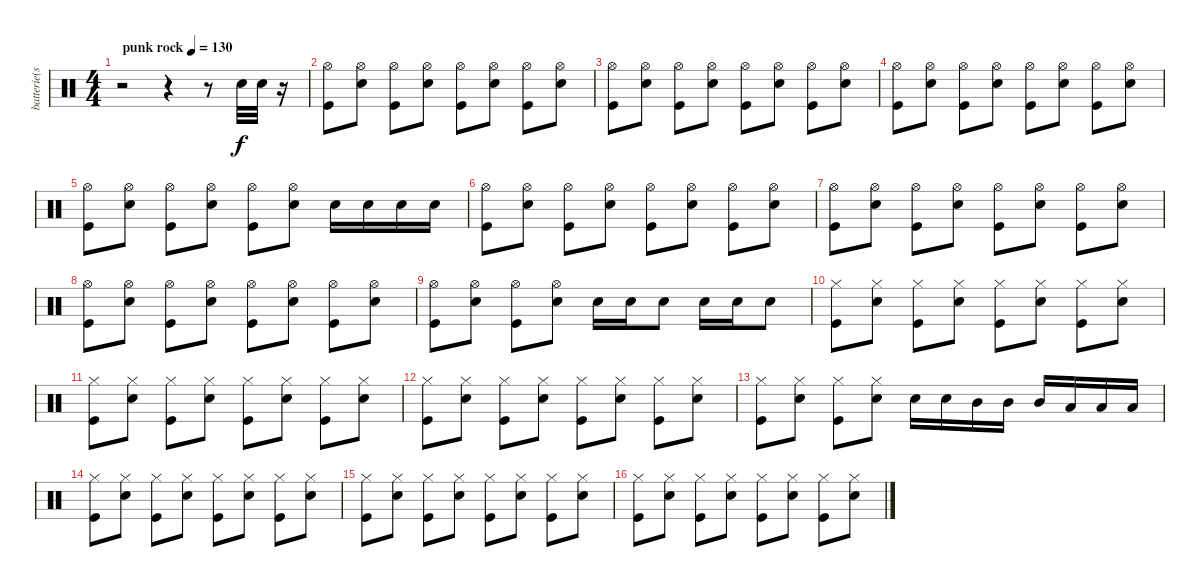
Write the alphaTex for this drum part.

\track ("batterie(steve)" "batterie(s") {instrument percussion}
\staff {score}
\articulation defaults
\ts (4 4)
\tempo (130 "punk rock")
\clef neutral
\ks c
r.2{dy f} r.4 r.8 "Snare (hit) 2".32 "Snare (hit) 2".32 r.16 |
("Hi-Hat (open)" "Kick (hit)").8 ("Hi-Hat (open)" "Snare (hit) 2").8 ("Hi-Hat (open)" "Kick (hit)").8 ("Hi-Hat (open)" "Snare (hit) 2").8 ("Hi-Hat (open)" "Kick (hit)").8 ("Hi-Hat (open)" "Snare (hit) 2").8 ("Hi-Hat (open)" "Kick (hit)").8 ("Hi-Hat (open)" "Snare (hit) 2").8 |
("Hi-Hat (open)" "Kick (hit)").8 ("Hi-Hat (open)" "Snare (hit) 2").8 ("Hi-Hat (open)" "Kick (hit)").8 ("Hi-Hat (open)" "Snare (hit) 2").8 ("Hi-Hat (open)" "Kick (hit)").8 ("Hi-Hat (open)" "Snare (hit) 2").8 ("Hi-Hat (open)" "Kick (hit)").8 ("Hi-Hat (open)" "Snare (hit) 2").8 |
("Hi-Hat (open)" "Kick (hit)").8 ("Hi-Hat (open)" "Snare (hit) 2").8 ("Hi-Hat (open)" "Kick (hit)").8 ("Hi-Hat (open)" "Snare (hit) 2").8 ("Hi-Hat (open)" "Kick (hit)").8 ("Hi-Hat (open)" "Snare (hit) 2").8 ("Hi-Hat (open)" "Kick (hit)").8 ("Hi-Hat (open)" "Snare (hit) 2").8 |
("Hi-Hat (open)" "Kick (hit)").8 ("Hi-Hat (open)" "Snare (hit) 2").8 ("Hi-Hat (open)" "Kick (hit)").8 ("Hi-Hat (open)" "Snare (hit) 2").8 ("Hi-Hat (open)" "Kick (hit)").8 ("Hi-Hat (open)" "Snare (hit) 2").8 "Snare (hit) 2".16 "Snare (hit) 2".16 "Snare (hit) 2".16 "Snare (hit) 2".16 |
("Hi-Hat (open)" "Kick (hit)").8 ("Hi-Hat (open)" "Snare (hit) 2").8 ("Hi-Hat (open)" "Kick (hit)").8 ("Hi-Hat (open)" "Snare (hit) 2").8 ("Hi-Hat (open)" "Kick (hit)").8 ("Hi-Hat (open)" "Snare (hit) 2").8 ("Hi-Hat (open)" "Kick (hit)").8 ("Hi-Hat (open)" "Snare (hit) 2").8 |
("Hi-Hat (open)" "Kick (hit)").8 ("Hi-Hat (open)" "Snare (hit) 2").8 ("Hi-Hat (open)" "Kick (hit)").8 ("Hi-Hat (open)" "Snare (hit) 2").8 ("Hi-Hat (open)" "Kick (hit)").8 ("Hi-Hat (open)" "Snare (hit) 2").8 ("Hi-Hat (open)" "Kick (hit)").8 ("Hi-Hat (open)" "Snare (hit) 2").8 |
("Hi-Hat (open)" "Kick (hit)").8 ("Hi-Hat (open)" "Snare (hit) 2").8 ("Hi-Hat (open)" "Kick (hit)").8 ("Hi-Hat (open)" "Snare (hit) 2").8 ("Hi-Hat (open)" "Kick (hit)").8 ("Hi-Hat (open)" "Snare (hit) 2").8 ("Hi-Hat (open)" "Kick (hit)").8 ("Hi-Hat (open)" "Snare (hit) 2").8 |
("Hi-Hat (open)" "Kick (hit)").8 ("Hi-Hat (open)" "Snare (hit) 2").8 ("Hi-Hat (open)" "Kick (hit)").8 ("Hi-Hat (open)" "Snare (hit) 2").8 "Snare (hit) 2".16 "Snare (hit) 2".16 "Snare (hit) 2".8 "Snare (hit) 2".16 "Snare (hit) 2".16 "Snare (hit) 2".8 |
("Hi-Hat (closed)" "Kick (hit)").8 ("Hi-Hat (closed)" "Snare (hit) 2").8 ("Hi-Hat (closed)" "Kick (hit)").8 ("Hi-Hat (closed)" "Snare (hit) 2").8 ("Hi-Hat (closed)" "Kick (hit)").8 ("Hi-Hat (closed)" "Snare (hit) 2").8 ("Hi-Hat (closed)" "Kick (hit)").8 ("Hi-Hat (closed)" "Snare (hit) 2").8 |
("Hi-Hat (closed)" "Kick (hit)").8 ("Hi-Hat (closed)" "Snare (hit) 2").8 ("Hi-Hat (closed)" "Kick (hit)").8 ("Hi-Hat (closed)" "Snare (hit) 2").8 ("Hi-Hat (closed)" "Kick (hit)").8 ("Hi-Hat (closed)" "Snare (hit) 2").8 ("Hi-Hat (closed)" "Kick (hit)").8 ("Hi-Hat (closed)" "Snare (hit) 2").8 |
("Hi-Hat (closed)" "Kick (hit)").8 ("Hi-Hat (closed)" "Snare (hit) 2").8 ("Hi-Hat (closed)" "Kick (hit)").8 ("Hi-Hat (closed)" "Snare (hit) 2").8 ("Hi-Hat (closed)" "Kick (hit)").8 ("Hi-Hat (closed)" "Snare (hit) 2").8 ("Hi-Hat (closed)" "Kick (hit)").8 ("Hi-Hat (closed)" "Snare (hit) 2").8 |
("Hi-Hat (closed)" "Kick (hit)").8 ("Hi-Hat (closed)" "Snare (hit) 2").8 ("Hi-Hat (closed)" "Kick (hit)").8 ("Hi-Hat (closed)" "Snare (hit) 2").8 "Snare (hit) 2".16 "Snare (hit) 2".16 "Mid Tom (hit)".16 "Mid Tom (hit)".16 "Mid Tom (hit)".16 "Low Tom (hit)".16 "Low Tom (hit)".16 "Low Tom (hit)".16 |
("Hi-Hat (closed)" "Kick (hit)").8 ("Hi-Hat (closed)" "Snare (hit) 2").8 ("Hi-Hat (closed)" "Kick (hit)").8 ("Hi-Hat (closed)" "Snare (hit) 2").8 ("Hi-Hat (closed)" "Kick (hit)").8 ("Hi-Hat (closed)" "Snare (hit) 2").8 ("Hi-Hat (closed)" "Kick (hit)").8 ("Hi-Hat (closed)" "Snare (hit) 2").8 |
("Hi-Hat (closed)" "Kick (hit)").8 ("Hi-Hat (closed)" "Snare (hit) 2").8 ("Hi-Hat (closed)" "Kick (hit)").8 ("Hi-Hat (closed)" "Snare (hit) 2").8 ("Hi-Hat (closed)" "Kick (hit)").8 ("Hi-Hat (closed)" "Snare (hit) 2").8 ("Hi-Hat (closed)" "Kick (hit)").8 ("Hi-Hat (closed)" "Snare (hit) 2").8 |
("Hi-Hat (closed)" "Kick (hit)").8 ("Hi-Hat (closed)" "Snare (hit) 2").8 ("Hi-Hat (closed)" "Kick (hit)").8 ("Hi-Hat (closed)" "Snare (hit) 2").8 ("Hi-Hat (closed)" "Kick (hit)").8 ("Hi-Hat (closed)" "Snare (hit) 2").8 ("Hi-Hat (closed)" "Kick (hit)").8 ("Hi-Hat (closed)" "Snare (hit) 2").8
